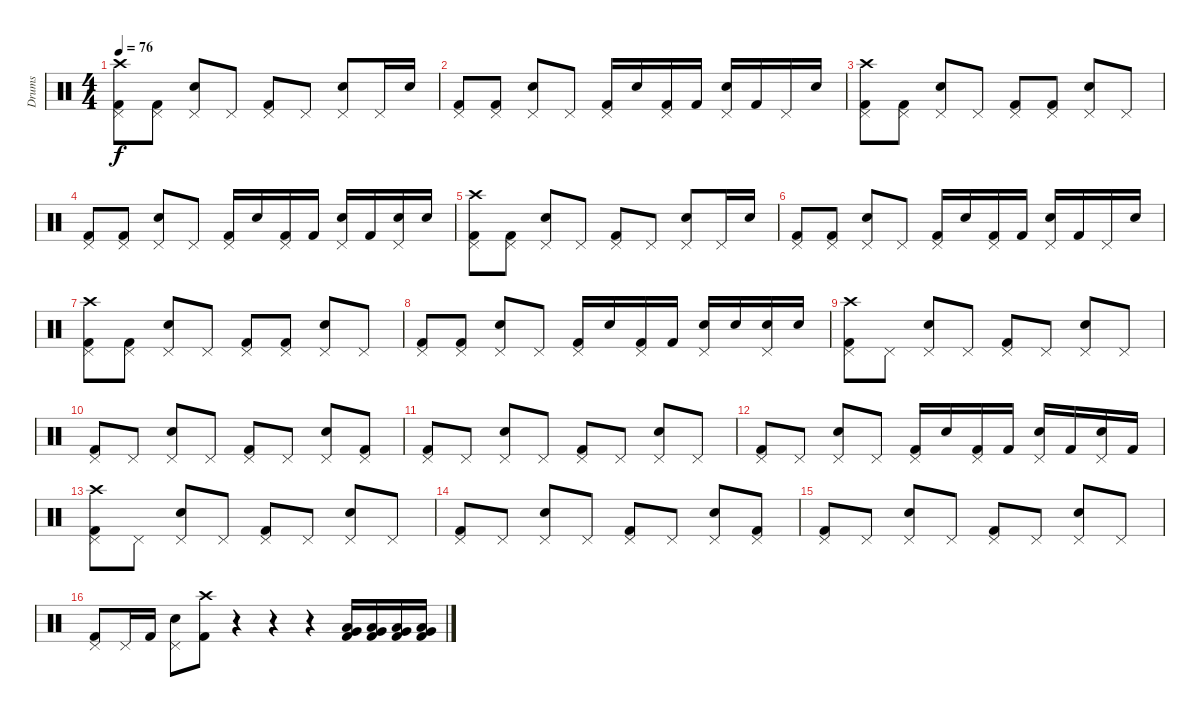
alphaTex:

\track ("Drums" "Drums") {instrument percussion}
\staff {score}
\articulation defaults
\ts (4 4)
\tempo 76
\clef neutral
\ks c
("Crash high (hit)" "Pedal Hi-Hat (hit)" "Kick (hit) 2").8{dy f} ("Pedal Hi-Hat (hit)" "Kick (hit) 2").8 ("Pedal Hi-Hat (hit)" "Snare (hit) 2").8 "Pedal Hi-Hat (hit)".8 ("Pedal Hi-Hat (hit)" "Kick (hit) 2").8 "Pedal Hi-Hat (hit)".8 ("Pedal Hi-Hat (hit)" "Snare (hit) 2").8 "Pedal Hi-Hat (hit)".16 "Snare (hit) 2".16 |
("Pedal Hi-Hat (hit)" "Kick (hit) 2").8 ("Pedal Hi-Hat (hit)" "Kick (hit) 2").8 ("Pedal Hi-Hat (hit)" "Snare (hit) 2").8 "Pedal Hi-Hat (hit)".8 ("Pedal Hi-Hat (hit)" "Kick (hit) 2").16 "Snare (hit) 2".16 ("Pedal Hi-Hat (hit)" "Kick (hit) 2").16 "Kick (hit) 2".16 ("Pedal Hi-Hat (hit)" "Snare (hit) 2").16 "Kick (hit) 2".16 "Pedal Hi-Hat (hit)".16 "Snare (hit) 2".16 |
("Crash high (hit)" "Pedal Hi-Hat (hit)" "Kick (hit) 2").8 ("Pedal Hi-Hat (hit)" "Kick (hit) 2").8 ("Pedal Hi-Hat (hit)" "Snare (hit) 2").8 "Pedal Hi-Hat (hit)".8 ("Pedal Hi-Hat (hit)" "Kick (hit) 2").8 ("Pedal Hi-Hat (hit)" "Kick (hit) 2").8 ("Pedal Hi-Hat (hit)" "Snare (hit) 2").8 "Pedal Hi-Hat (hit)".8 |
("Pedal Hi-Hat (hit)" "Kick (hit) 2").8 ("Pedal Hi-Hat (hit)" "Kick (hit) 2").8 ("Pedal Hi-Hat (hit)" "Snare (hit) 2").8 "Pedal Hi-Hat (hit)".8 ("Pedal Hi-Hat (hit)" "Kick (hit) 2").16 "Snare (hit) 2".16 ("Pedal Hi-Hat (hit)" "Kick (hit) 2").16 "Kick (hit) 2".16 ("Pedal Hi-Hat (hit)" "Snare (hit) 2").16 "Kick (hit) 2".16 ("Pedal Hi-Hat (hit)" "Snare (hit) 2").16 "Snare (hit) 2".16 |
("Crash high (hit)" "Pedal Hi-Hat (hit)" "Kick (hit) 2").8 ("Pedal Hi-Hat (hit)" "Kick (hit) 2").8 ("Pedal Hi-Hat (hit)" "Snare (hit) 2").8 "Pedal Hi-Hat (hit)".8 ("Pedal Hi-Hat (hit)" "Kick (hit) 2").8 "Pedal Hi-Hat (hit)".8 ("Pedal Hi-Hat (hit)" "Snare (hit) 2").8 "Pedal Hi-Hat (hit)".16 "Snare (hit) 2".16 |
("Pedal Hi-Hat (hit)" "Kick (hit) 2").8 ("Pedal Hi-Hat (hit)" "Kick (hit) 2").8 ("Pedal Hi-Hat (hit)" "Snare (hit) 2").8 "Pedal Hi-Hat (hit)".8 ("Pedal Hi-Hat (hit)" "Kick (hit) 2").16 "Snare (hit) 2".16 ("Pedal Hi-Hat (hit)" "Kick (hit) 2").16 "Kick (hit) 2".16 ("Pedal Hi-Hat (hit)" "Snare (hit) 2").16 "Kick (hit) 2".16 "Pedal Hi-Hat (hit)".16 "Snare (hit) 2".16 |
("Crash high (hit)" "Pedal Hi-Hat (hit)" "Kick (hit) 2").8 ("Pedal Hi-Hat (hit)" "Kick (hit) 2").8 ("Pedal Hi-Hat (hit)" "Snare (hit) 2").8 "Pedal Hi-Hat (hit)".8 ("Pedal Hi-Hat (hit)" "Kick (hit) 2").8 ("Pedal Hi-Hat (hit)" "Kick (hit) 2").8 ("Pedal Hi-Hat (hit)" "Snare (hit) 2").8 "Pedal Hi-Hat (hit)".8 |
("Pedal Hi-Hat (hit)" "Kick (hit) 2").8 ("Pedal Hi-Hat (hit)" "Kick (hit) 2").8 ("Pedal Hi-Hat (hit)" "Snare (hit) 2").8 "Pedal Hi-Hat (hit)".8 ("Pedal Hi-Hat (hit)" "Kick (hit) 2").16 "Snare (hit) 2".16 ("Pedal Hi-Hat (hit)" "Kick (hit) 2").16 "Kick (hit) 2".16 ("Pedal Hi-Hat (hit)" "Snare (hit) 2").16 "Snare (hit) 2".16 ("Pedal Hi-Hat (hit)" "Snare (hit) 2").16 "Snare (hit) 2".16 |
("Crash high (hit)" "Pedal Hi-Hat (hit)" "Kick (hit) 2").8 "Pedal Hi-Hat (hit)".8 ("Pedal Hi-Hat (hit)" "Snare (hit) 2").8 "Pedal Hi-Hat (hit)".8 ("Pedal Hi-Hat (hit)" "Kick (hit) 2").8 "Pedal Hi-Hat (hit)".8 ("Pedal Hi-Hat (hit)" "Snare (hit) 2").8 "Pedal Hi-Hat (hit)".8 |
("Pedal Hi-Hat (hit)" "Kick (hit) 2").8 "Pedal Hi-Hat (hit)".8 ("Pedal Hi-Hat (hit)" "Snare (hit) 2").8 "Pedal Hi-Hat (hit)".8 ("Pedal Hi-Hat (hit)" "Kick (hit) 2").8 "Pedal Hi-Hat (hit)".8 ("Pedal Hi-Hat (hit)" "Snare (hit) 2").8 ("Pedal Hi-Hat (hit)" "Kick (hit) 2").8 |
("Pedal Hi-Hat (hit)" "Kick (hit) 2").8 "Pedal Hi-Hat (hit)".8 ("Pedal Hi-Hat (hit)" "Snare (hit) 2").8 "Pedal Hi-Hat (hit)".8 ("Pedal Hi-Hat (hit)" "Kick (hit) 2").8 "Pedal Hi-Hat (hit)".8 ("Pedal Hi-Hat (hit)" "Snare (hit) 2").8 "Pedal Hi-Hat (hit)".8 |
("Pedal Hi-Hat (hit)" "Kick (hit) 2").8 "Pedal Hi-Hat (hit)".8 ("Pedal Hi-Hat (hit)" "Snare (hit) 2").8 "Pedal Hi-Hat (hit)".8 ("Pedal Hi-Hat (hit)" "Kick (hit) 2").16 "Snare (hit) 2".16 ("Pedal Hi-Hat (hit)" "Kick (hit) 2").16 "Kick (hit) 2".16 ("Pedal Hi-Hat (hit)" "Snare (hit) 2").16 "Kick (hit) 2".16 ("Pedal Hi-Hat (hit)" "Snare (hit) 2").16 "Kick (hit) 2".16 |
("Crash high (hit)" "Pedal Hi-Hat (hit)" "Kick (hit) 2").8 "Pedal Hi-Hat (hit)".8 ("Pedal Hi-Hat (hit)" "Snare (hit) 2").8 "Pedal Hi-Hat (hit)".8 ("Pedal Hi-Hat (hit)" "Kick (hit) 2").8 "Pedal Hi-Hat (hit)".8 ("Pedal Hi-Hat (hit)" "Snare (hit) 2").8 "Pedal Hi-Hat (hit)".8 |
("Pedal Hi-Hat (hit)" "Kick (hit) 2").8 "Pedal Hi-Hat (hit)".8 ("Pedal Hi-Hat (hit)" "Snare (hit) 2").8 "Pedal Hi-Hat (hit)".8 ("Pedal Hi-Hat (hit)" "Kick (hit) 2").8 "Pedal Hi-Hat (hit)".8 ("Pedal Hi-Hat (hit)" "Snare (hit) 2").8 ("Pedal Hi-Hat (hit)" "Kick (hit) 2").8 |
("Pedal Hi-Hat (hit)" "Kick (hit) 2").8 "Pedal Hi-Hat (hit)".8 ("Pedal Hi-Hat (hit)" "Snare (hit) 2").8 "Pedal Hi-Hat (hit)".8 ("Pedal Hi-Hat (hit)" "Kick (hit) 2").8 "Pedal Hi-Hat (hit)".8 ("Pedal Hi-Hat (hit)" "Snare (hit) 2").8 "Pedal Hi-Hat (hit)".8 |
("Pedal Hi-Hat (hit)" "Kick (hit) 2").8 "Pedal Hi-Hat (hit)".16 "Kick (hit) 2".16 ("Pedal Hi-Hat (hit)" "Snare (hit) 2").8 ("Crash high (hit)" "Kick (hit) 2").8 r.4 r.4 r.4 ("Low Tom (hit)" "Very Low Tom (hit)" "Kick (hit) 2").16 ("Low Tom (hit)" "Very Low Tom (hit)" "Kick (hit) 2").16 ("Low Tom (hit)" "Very Low Tom (hit)" "Kick (hit) 2").16 ("Low Tom (hit)" "Very Low Tom (hit)" "Kick (hit) 2").16
